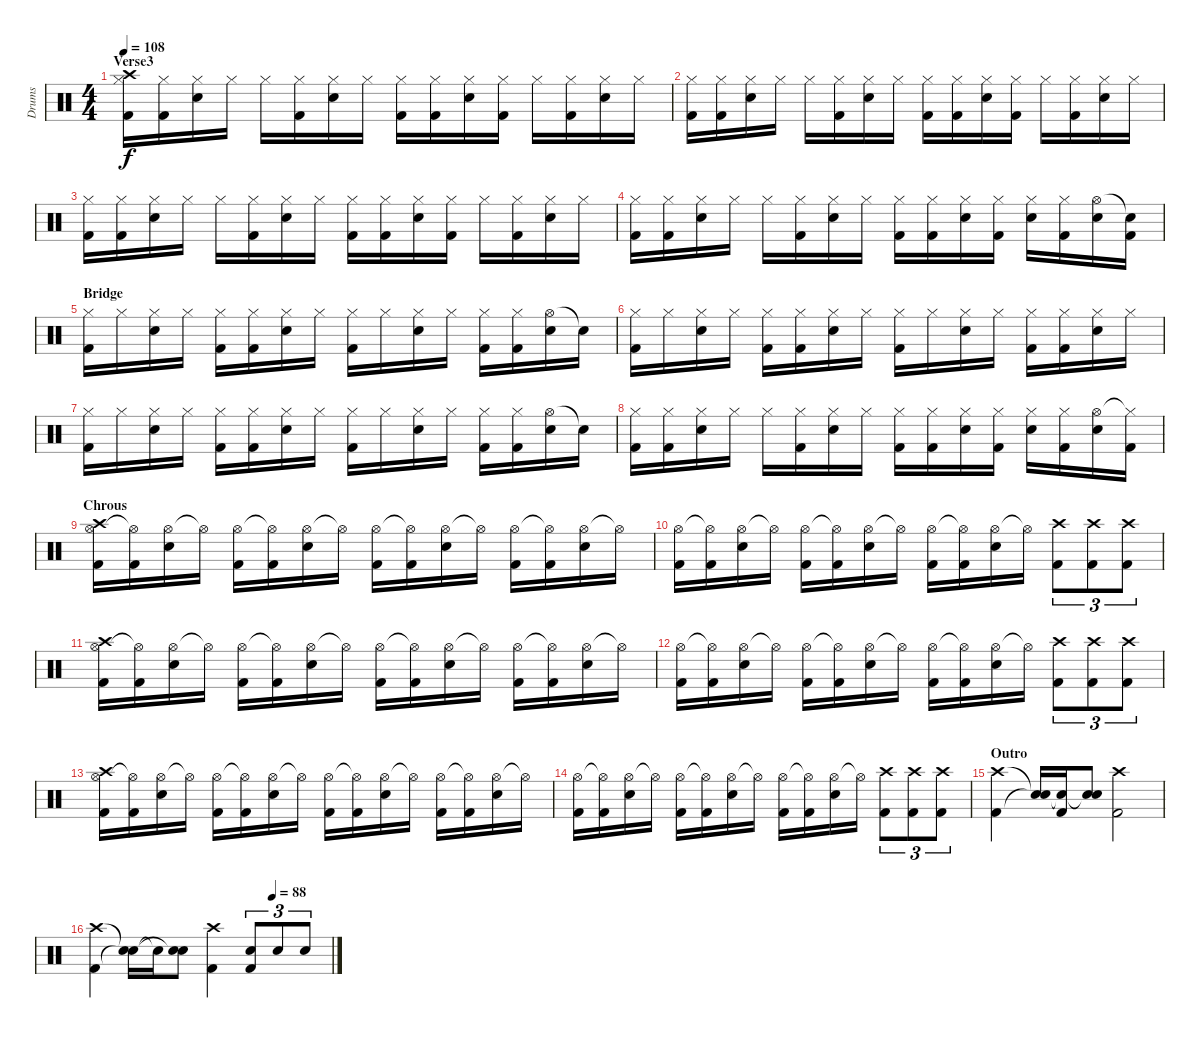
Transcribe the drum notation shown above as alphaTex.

\track ("Drums" "Drums") {instrument percussion}
\staff {score}
\articulation defaults
\ts (4 4)
\section ("" "Verse3")
\tempo 108
\clef neutral
\ks c
("Hi-Hat (closed)" "Kick (hit) 2" "Crash high (hit)").16{dy f} ("Hi-Hat (closed)" "Kick (hit) 2").16 ("Hi-Hat (closed)" "Electric Snare (hit)").16 "Hi-Hat (closed)".16 "Hi-Hat (closed)".16 ("Hi-Hat (closed)" "Kick (hit) 2").16 ("Hi-Hat (closed)" "Electric Snare (hit)").16 "Hi-Hat (closed)".16 ("Hi-Hat (closed)" "Kick (hit) 2").16 ("Hi-Hat (closed)" "Kick (hit) 2").16 ("Hi-Hat (closed)" "Electric Snare (hit)").16 ("Hi-Hat (closed)" "Kick (hit) 2").16 "Hi-Hat (closed)".16 ("Hi-Hat (closed)" "Kick (hit) 2").16 ("Hi-Hat (closed)" "Electric Snare (hit)").16 "Hi-Hat (closed)".16 |
("Hi-Hat (closed)" "Kick (hit) 2").16 ("Hi-Hat (closed)" "Kick (hit) 2").16 ("Hi-Hat (closed)" "Electric Snare (hit)").16 "Hi-Hat (closed)".16 "Hi-Hat (closed)".16 ("Hi-Hat (closed)" "Kick (hit) 2").16 ("Hi-Hat (closed)" "Electric Snare (hit)").16 "Hi-Hat (closed)".16 ("Hi-Hat (closed)" "Kick (hit) 2").16 ("Hi-Hat (closed)" "Kick (hit) 2").16 ("Hi-Hat (closed)" "Electric Snare (hit)").16 ("Hi-Hat (closed)" "Kick (hit) 2").16 "Hi-Hat (closed)".16 ("Hi-Hat (closed)" "Kick (hit) 2").16 ("Hi-Hat (closed)" "Electric Snare (hit)").16 "Hi-Hat (closed)".16 |
("Hi-Hat (closed)" "Kick (hit) 2").16 ("Hi-Hat (closed)" "Kick (hit) 2").16 ("Hi-Hat (closed)" "Electric Snare (hit)").16 "Hi-Hat (closed)".16 "Hi-Hat (closed)".16 ("Hi-Hat (closed)" "Kick (hit) 2").16 ("Hi-Hat (closed)" "Electric Snare (hit)").16 "Hi-Hat (closed)".16 ("Hi-Hat (closed)" "Kick (hit) 2").16 ("Hi-Hat (closed)" "Kick (hit) 2").16 ("Hi-Hat (closed)" "Electric Snare (hit)").16 ("Hi-Hat (closed)" "Kick (hit) 2").16 "Hi-Hat (closed)".16 ("Hi-Hat (closed)" "Kick (hit) 2").16 ("Hi-Hat (closed)" "Electric Snare (hit)").16 "Hi-Hat (closed)".16 |
("Hi-Hat (closed)" "Kick (hit) 2").16 ("Hi-Hat (closed)" "Kick (hit) 2").16 ("Hi-Hat (closed)" "Electric Snare (hit)").16 "Hi-Hat (closed)".16 "Hi-Hat (closed)".16 ("Hi-Hat (closed)" "Kick (hit) 2").16 ("Hi-Hat (closed)" "Electric Snare (hit)").16 "Hi-Hat (closed)".16 ("Hi-Hat (closed)" "Kick (hit) 2").16 ("Hi-Hat (closed)" "Kick (hit) 2").16 ("Hi-Hat (closed)" "Electric Snare (hit)").16 ("Hi-Hat (closed)" "Kick (hit) 2").16 ("Hi-Hat (closed)" "Electric Snare (hit)").16 ("Hi-Hat (closed)" "Kick (hit) 2").16 ("Hi-Hat (open)" "Electric Snare (hit)").16 ("Snare (hit)"{t} "Kick (hit) 2").16 |
\section ("" "Bridge")
("Hi-Hat (closed)" "Kick (hit) 2").16{volume 14} "Hi-Hat (closed)".16 ("Hi-Hat (closed)" "Electric Snare (hit)").16 "Hi-Hat (closed)".16 ("Hi-Hat (closed)" "Kick (hit) 2").16 ("Hi-Hat (closed)" "Kick (hit) 2").16 ("Hi-Hat (closed)" "Electric Snare (hit)").16 "Hi-Hat (closed)".16 ("Hi-Hat (closed)" "Kick (hit) 2").16 "Hi-Hat (closed)".16 ("Hi-Hat (closed)" "Electric Snare (hit)").16 "Hi-Hat (closed)".16 ("Hi-Hat (closed)" "Kick (hit) 2").16 ("Hi-Hat (closed)" "Kick (hit) 2").16 ("Hi-Hat (open)" "Electric Snare (hit)").16 "Snare (hit)"{t}.16 |
("Hi-Hat (closed)" "Kick (hit) 2").16 "Hi-Hat (closed)".16 ("Hi-Hat (closed)" "Electric Snare (hit)").16 "Hi-Hat (closed)".16 ("Hi-Hat (closed)" "Kick (hit) 2").16 ("Hi-Hat (closed)" "Kick (hit) 2").16 ("Hi-Hat (closed)" "Electric Snare (hit)").16 "Hi-Hat (closed)".16 ("Hi-Hat (closed)" "Kick (hit) 2").16 "Hi-Hat (closed)".16 ("Hi-Hat (closed)" "Electric Snare (hit)").16 "Hi-Hat (closed)".16 ("Hi-Hat (closed)" "Kick (hit) 2").16 ("Hi-Hat (closed)" "Kick (hit) 2").16 ("Hi-Hat (closed)" "Electric Snare (hit)").16 "Hi-Hat (closed)".16 |
("Hi-Hat (closed)" "Kick (hit) 2").16 "Hi-Hat (closed)".16 ("Hi-Hat (closed)" "Electric Snare (hit)").16 "Hi-Hat (closed)".16 ("Hi-Hat (closed)" "Kick (hit) 2").16 ("Hi-Hat (closed)" "Kick (hit) 2").16 ("Hi-Hat (closed)" "Electric Snare (hit)").16 "Hi-Hat (closed)".16 ("Hi-Hat (closed)" "Kick (hit) 2").16 "Hi-Hat (closed)".16 ("Hi-Hat (closed)" "Electric Snare (hit)").16 "Hi-Hat (closed)".16 ("Hi-Hat (closed)" "Kick (hit) 2").16 ("Hi-Hat (closed)" "Kick (hit) 2").16 ("Hi-Hat (open)" "Electric Snare (hit)").16 "Snare (hit)"{t}.16 |
("Hi-Hat (closed)" "Kick (hit) 2").16 ("Hi-Hat (closed)" "Kick (hit) 2").16 ("Hi-Hat (closed)" "Electric Snare (hit)").16 "Hi-Hat (closed)".16 "Hi-Hat (closed)".16 ("Hi-Hat (closed)" "Kick (hit) 2").16 ("Hi-Hat (closed)" "Electric Snare (hit)").16 "Hi-Hat (closed)".16 ("Hi-Hat (closed)" "Kick (hit) 2").16 ("Hi-Hat (closed)" "Kick (hit) 2").16 ("Hi-Hat (closed)" "Electric Snare (hit)").16 ("Hi-Hat (closed)" "Kick (hit) 2").16 ("Hi-Hat (closed)" "Electric Snare (hit)").16 ("Hi-Hat (closed)" "Kick (hit) 2").16 ("Hi-Hat (open)" "Electric Snare (hit)").16 ("Hi-Hat (closed)"{t} "Kick (hit) 2").16 |
\section ("" "Chrous")
("Hi-Hat (open)" "Kick (hit) 2" "Crash high (hit)").16 ("Hi-Hat (open)"{t} "Kick (hit) 2").16 ("Hi-Hat (open)" "Electric Snare (hit)").16 "Hi-Hat (open)"{t}.16 ("Hi-Hat (open)" "Kick (hit) 2").16 ("Hi-Hat (open)"{t} "Kick (hit) 2").16 ("Hi-Hat (open)" "Electric Snare (hit)").16 "Hi-Hat (open)"{t}.16 ("Hi-Hat (open)" "Kick (hit) 2").16 ("Hi-Hat (open)"{t} "Kick (hit) 2").16 ("Hi-Hat (open)" "Electric Snare (hit)").16 "Hi-Hat (open)"{t}.16 ("Hi-Hat (open)" "Kick (hit) 2").16 ("Hi-Hat (open)"{t} "Kick (hit) 2").16 ("Hi-Hat (open)" "Electric Snare (hit)").16 "Hi-Hat (open)"{t}.16 |
("Hi-Hat (open)" "Kick (hit) 2").16 ("Hi-Hat (open)"{t} "Kick (hit) 2").16 ("Hi-Hat (open)" "Electric Snare (hit)").16 "Hi-Hat (open)"{t}.16 ("Hi-Hat (open)" "Kick (hit) 2").16 ("Hi-Hat (open)"{t} "Kick (hit) 2").16 ("Hi-Hat (open)" "Electric Snare (hit)").16 "Hi-Hat (open)"{t}.16 ("Hi-Hat (open)" "Kick (hit) 2").16 ("Hi-Hat (open)"{t} "Kick (hit) 2").16 ("Hi-Hat (open)" "Electric Snare (hit)").16 "Hi-Hat (open)"{t}.16 ("Kick (hit) 2" "Crash high (hit)").8{tu (3 2)} ("Kick (hit) 2" "Crash high (hit)").8{tu (3 2)} ("Kick (hit) 2" "Crash high (hit)").8{tu (3 2)} |
("Hi-Hat (open)" "Kick (hit) 2" "Crash high (hit)").16 ("Hi-Hat (open)"{t} "Kick (hit) 2").16 ("Hi-Hat (open)" "Electric Snare (hit)").16 "Hi-Hat (open)"{t}.16 ("Hi-Hat (open)" "Kick (hit) 2").16 ("Hi-Hat (open)"{t} "Kick (hit) 2").16 ("Hi-Hat (open)" "Electric Snare (hit)").16 "Hi-Hat (open)"{t}.16 ("Hi-Hat (open)" "Kick (hit) 2").16 ("Hi-Hat (open)"{t} "Kick (hit) 2").16 ("Hi-Hat (open)" "Electric Snare (hit)").16 "Hi-Hat (open)"{t}.16 ("Hi-Hat (open)" "Kick (hit) 2").16 ("Hi-Hat (open)"{t} "Kick (hit) 2").16 ("Hi-Hat (open)" "Electric Snare (hit)").16 "Hi-Hat (open)"{t}.16 |
("Hi-Hat (open)" "Kick (hit) 2").16 ("Hi-Hat (open)"{t} "Kick (hit) 2").16 ("Hi-Hat (open)" "Electric Snare (hit)").16 "Hi-Hat (open)"{t}.16 ("Hi-Hat (open)" "Kick (hit) 2").16 ("Hi-Hat (open)"{t} "Kick (hit) 2").16 ("Hi-Hat (open)" "Electric Snare (hit)").16 "Hi-Hat (open)"{t}.16 ("Hi-Hat (open)" "Kick (hit) 2").16 ("Hi-Hat (open)"{t} "Kick (hit) 2").16 ("Hi-Hat (open)" "Electric Snare (hit)").16 "Hi-Hat (open)"{t}.16 ("Kick (hit) 2" "Crash high (hit)").8{tu (3 2)} ("Kick (hit) 2" "Crash high (hit)").8{tu (3 2)} ("Kick (hit) 2" "Crash high (hit)").8{tu (3 2)} |
("Hi-Hat (open)" "Kick (hit) 2" "Crash high (hit)").16 ("Hi-Hat (open)"{t} "Kick (hit) 2").16 ("Hi-Hat (open)" "Electric Snare (hit)").16 "Hi-Hat (open)"{t}.16 ("Hi-Hat (open)" "Kick (hit) 2").16 ("Hi-Hat (open)"{t} "Kick (hit) 2").16 ("Hi-Hat (open)" "Electric Snare (hit)").16 "Hi-Hat (open)"{t}.16 ("Hi-Hat (open)" "Kick (hit) 2").16 ("Hi-Hat (open)"{t} "Kick (hit) 2").16 ("Hi-Hat (open)" "Electric Snare (hit)").16 "Hi-Hat (open)"{t}.16 ("Hi-Hat (open)" "Kick (hit) 2").16 ("Hi-Hat (open)"{t} "Kick (hit) 2").16 ("Hi-Hat (open)" "Electric Snare (hit)").16 "Hi-Hat (open)"{t}.16 |
("Hi-Hat (open)" "Kick (hit) 2").16 ("Hi-Hat (open)"{t} "Kick (hit) 2").16 ("Hi-Hat (open)" "Electric Snare (hit)").16 "Hi-Hat (open)"{t}.16 ("Hi-Hat (open)" "Kick (hit) 2").16 ("Hi-Hat (open)"{t} "Kick (hit) 2").16 ("Hi-Hat (open)" "Electric Snare (hit)").16 "Hi-Hat (open)"{t}.16 ("Hi-Hat (open)" "Kick (hit) 2").16 ("Hi-Hat (open)"{t} "Kick (hit) 2").16 ("Hi-Hat (open)" "Electric Snare (hit)").16 "Hi-Hat (open)"{t}.16 ("Kick (hit) 2" "Crash high (hit)").8{tu (3 2)} ("Kick (hit) 2" "Crash high (hit)").8{tu (3 2)} ("Kick (hit) 2" "Crash high (hit)").8{tu (3 2)} |
\section ("" "Outro")
("Kick (hit) 2" "Crash high (hit)").4 ("Snare (hit)"{t} "Snare (hit)"{t}).16 ("Kick (hit) 2" "Snare (hit)"{t}).16 ("Electric Snare (hit)" "Snare (hit)"{t}).8 ("Kick (hit) 2" "Crash high (hit)").2 |
\tempo (88 0.75)
("Kick (hit) 2" "Crash high (hit)").4 ("Snare (hit)"{t} "Snare (hit)"{t}).16 "Snare (hit)"{t}.16 ("Electric Snare (hit)" "Snare (hit)"{t}).8 ("Kick (hit) 2" "Crash high (hit)").4 ("Kick (hit) 2" "Electric Snare (hit)").8{tu (3 2)} "Electric Snare (hit)".8{tu (3 2)} "Electric Snare (hit)".8{tu (3 2)}
